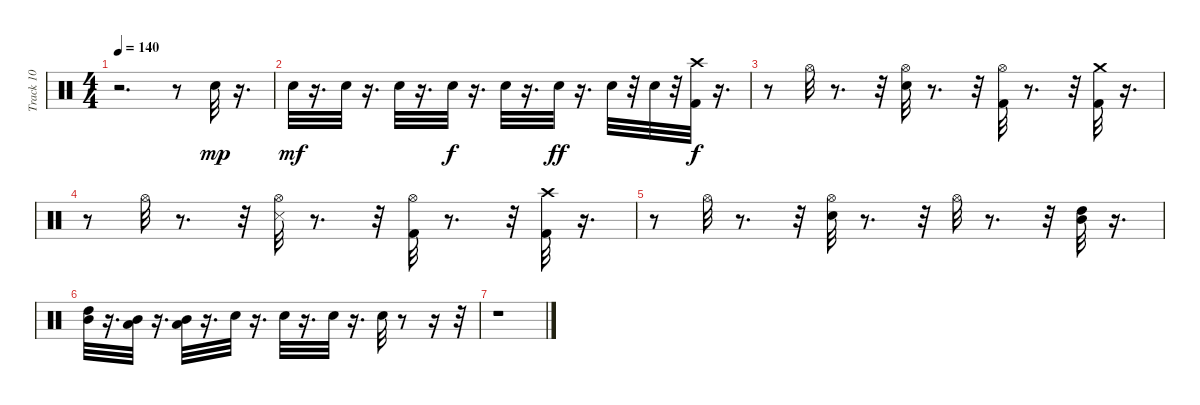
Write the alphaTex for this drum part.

\track ("Track 10" "Track 10") {instrument percussion}
\staff {score}
\articulation defaults
\ts (4 4)
\tempo 140
\clef neutral
\ks c
r.2{d dy f} r.8 "Electric Snare (hit)".32{dy mp} r.16{d} |
"Electric Snare (hit)".32{dy mf} r.16{d} "Electric Snare (hit)".32 r.16{d} "Electric Snare (hit)".32 r.16{d} "Electric Snare (hit)".32{dy f} r.16{d} "Electric Snare (hit)".32 r.16{d} "Electric Snare (hit)".32{dy ff} r.16{d} "Electric Snare (hit)".32 r.32 "Electric Snare (hit)".32 r.32 ("Kick (hit) 2" "Crash high (hit)").32{dy f} r.16{d} |
r.8 "Hi-Hat (open)".32 r.8{d} r.32 ("Electric Snare (hit)" "Hi-Hat (open)").32 r.8{d} r.32 ("Hi-Hat (open)" "Kick (hit) 2").32 r.8{d} r.32 ("Kick (hit) 2" "Crash medium (hit)").32 r.16{d} |
r.8 "Hi-Hat (open)".32 r.8{d} r.32 ("Snare (side stick) 3" "Hi-Hat (open)").32 r.8{d} r.32 ("Kick (hit) 2" "Hi-Hat (open)").32 r.8{d} r.32 ("Kick (hit) 2" "Crash high (hit)").32 r.16{d} |
r.8 "Hi-Hat (open)".32 r.8{d} r.32 ("Electric Snare (hit)" "Hi-Hat (open)").32 r.8{d} r.32 "Hi-Hat (open)".32 r.8{d} r.32 ("High Tom (hit)" "Mid Tom (hit)").32 r.16{d} |
("High Tom (hit)" "Mid Tom (hit)").32 r.16{d} ("Low Tom (hit)" "Mid Tom (hit)").32 r.16{d} ("Mid Tom (hit)" "Low Tom (hit)").32 r.16{d} "Electric Snare (hit)".32 r.16{d} "Electric Snare (hit)".32 r.16{d} "Electric Snare (hit)".32 r.16{d} "Electric Snare (hit)".32 r.8 r.16 r.32 |
r.1
